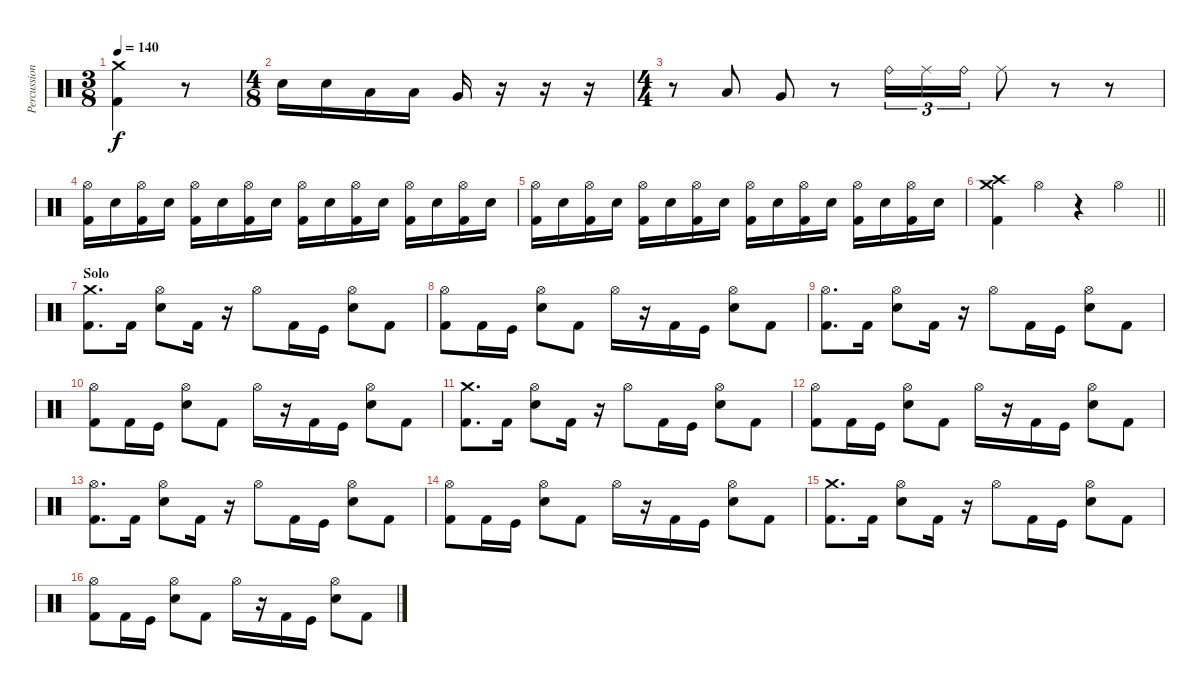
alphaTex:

\track ("Percussion" "Percussion") {instrument percussion}
\staff {score}
\articulation defaults
\ts (3 8)
\tempo 140
\clef neutral
\ks c
("Crash medium (hit)" "Kick (hit) 2").4{dy f} r.8 |
\ts (4 8)
"Snare (hit) 2".16 "Snare (hit) 2".16 "Low Tom (hit)".16 "Low Tom (hit)".16 "Very Low Tom (hit)".16 r.16 r.16 r.16 |
\ts (4 4)
r.8 "Low Tom (hit)".8 "Very Low Tom (hit)".8 r.8 "Ride (bell)".16{tu (3 2)} "Ride (middle)".16{tu (3 2)} "Ride (bell)".16{tu (3 2)} "Ride (middle)".8 r.8 r.8 |
("Hi-Hat (open)" "Kick (hit) 2").16 "Snare (hit) 2".16 ("Hi-Hat (open)" "Kick (hit) 2").16 "Snare (hit) 2".16 ("Hi-Hat (open)" "Kick (hit) 2").16 "Snare (hit) 2".16 ("Hi-Hat (open)" "Kick (hit) 2").16 "Snare (hit) 2".16 ("Hi-Hat (open)" "Kick (hit) 2").16 "Snare (hit) 2".16 ("Hi-Hat (open)" "Kick (hit) 2").16 "Snare (hit) 2".16 ("Hi-Hat (open)" "Kick (hit) 2").16 "Snare (hit) 2".16 ("Hi-Hat (open)" "Kick (hit) 2").16 "Snare (hit) 2".16 |
("Hi-Hat (open)" "Kick (hit) 2").16 "Snare (hit) 2".16 ("Hi-Hat (open)" "Kick (hit) 2").16 "Snare (hit) 2".16 ("Hi-Hat (open)" "Kick (hit) 2").16 "Snare (hit) 2".16 ("Hi-Hat (open)" "Kick (hit) 2").16 "Snare (hit) 2".16 ("Hi-Hat (open)" "Kick (hit) 2").16 "Snare (hit) 2".16 ("Hi-Hat (open)" "Kick (hit) 2").16 "Snare (hit) 2".16 ("Hi-Hat (open)" "Kick (hit) 2").16 "Snare (hit) 2".16 ("Hi-Hat (open)" "Kick (hit) 2").16 "Snare (hit) 2".16 |
\barLineRight lightlight
("Crash medium (hit)" "Crash high (hit)" "Kick (hit) 2").4 "Hi-Hat (open)".4 r.4 "Hi-Hat (open)".4 |
\section ("" "Solo")
("Crash medium (hit)" "Kick (hit) 2").8{d} "Kick (hit) 2".16 ("Hi-Hat (open)" "Snare (hit) 2").8 "Kick (hit) 2".16 r.16 "Hi-Hat (open)".8 "Kick (hit) 2".16 "Kick (hit)".16 ("Hi-Hat (open)" "Snare (hit) 2").8 "Kick (hit) 2".8 |
("Hi-Hat (open)" "Kick (hit) 2").8 "Kick (hit) 2".16 "Kick (hit)".16 ("Hi-Hat (open)" "Snare (hit) 2").8 "Kick (hit) 2".8 "Hi-Hat (open)".16 r.16 "Kick (hit) 2".16 "Kick (hit)".16 ("Hi-Hat (open)" "Snare (hit) 2").8 "Kick (hit) 2".8 |
("Hi-Hat (open)" "Kick (hit) 2").8{d} "Kick (hit) 2".16 ("Hi-Hat (open)" "Snare (hit) 2").8 "Kick (hit) 2".16 r.16 "Hi-Hat (open)".8 "Kick (hit) 2".16 "Kick (hit)".16 ("Hi-Hat (open)" "Snare (hit) 2").8 "Kick (hit) 2".8 |
("Hi-Hat (open)" "Kick (hit) 2").8 "Kick (hit) 2".16 "Kick (hit)".16 ("Hi-Hat (open)" "Snare (hit) 2").8 "Kick (hit) 2".8 "Hi-Hat (open)".16 r.16 "Kick (hit) 2".16 "Kick (hit)".16 ("Hi-Hat (open)" "Snare (hit) 2").8 "Kick (hit) 2".8 |
("Crash medium (hit)" "Kick (hit) 2").8{d} "Kick (hit) 2".16 ("Hi-Hat (open)" "Snare (hit) 2").8 "Kick (hit) 2".16 r.16 "Hi-Hat (open)".8 "Kick (hit) 2".16 "Kick (hit)".16 ("Hi-Hat (open)" "Snare (hit) 2").8 "Kick (hit) 2".8 |
("Hi-Hat (open)" "Kick (hit) 2").8 "Kick (hit) 2".16 "Kick (hit)".16 ("Hi-Hat (open)" "Snare (hit) 2").8 "Kick (hit) 2".8 "Hi-Hat (open)".16 r.16 "Kick (hit) 2".16 "Kick (hit)".16 ("Hi-Hat (open)" "Snare (hit) 2").8 "Kick (hit) 2".8 |
("Hi-Hat (open)" "Kick (hit) 2").8{d} "Kick (hit) 2".16 ("Hi-Hat (open)" "Snare (hit) 2").8 "Kick (hit) 2".16 r.16 "Hi-Hat (open)".8 "Kick (hit) 2".16 "Kick (hit)".16 ("Hi-Hat (open)" "Snare (hit) 2").8 "Kick (hit) 2".8 |
("Hi-Hat (open)" "Kick (hit) 2").8 "Kick (hit) 2".16 "Kick (hit)".16 ("Hi-Hat (open)" "Snare (hit) 2").8 "Kick (hit) 2".8 "Hi-Hat (open)".16 r.16 "Kick (hit) 2".16 "Kick (hit)".16 ("Hi-Hat (open)" "Snare (hit) 2").8 "Kick (hit) 2".8 |
("Crash medium (hit)" "Kick (hit) 2").8{d} "Kick (hit) 2".16 ("Hi-Hat (open)" "Snare (hit) 2").8 "Kick (hit) 2".16 r.16 "Hi-Hat (open)".8 "Kick (hit) 2".16 "Kick (hit)".16 ("Hi-Hat (open)" "Snare (hit) 2").8 "Kick (hit) 2".8 |
("Hi-Hat (open)" "Kick (hit) 2").8 "Kick (hit) 2".16 "Kick (hit)".16 ("Hi-Hat (open)" "Snare (hit) 2").8 "Kick (hit) 2".8 "Hi-Hat (open)".16 r.16 "Kick (hit) 2".16 "Kick (hit)".16 ("Hi-Hat (open)" "Snare (hit) 2").8 "Kick (hit) 2".8
